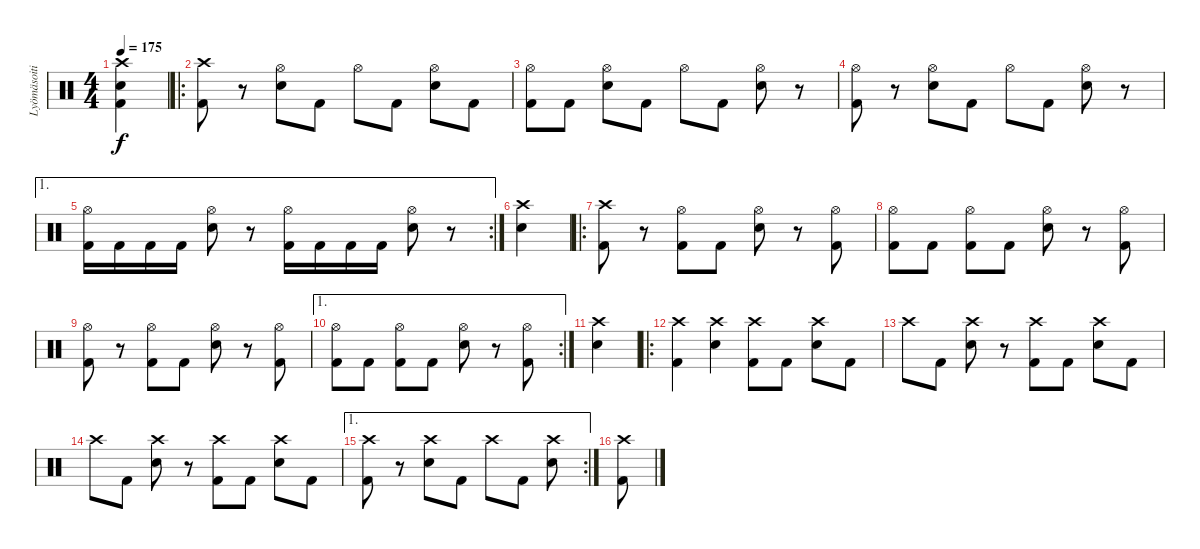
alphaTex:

\track ("Lyömäsoitin" "Lyömäsoiti") {instrument percussion}
\staff {score}
\articulation defaults
\ts (4 4)
\tempo 175
\clef neutral
\ks c
("Kick (hit) 2" "Electric Snare (hit)" "Crash high (hit)").4{dy f} |
\ro
("Kick (hit) 2" "Crash high (hit)").8 r.8 ("Electric Snare (hit)" "Hi-Hat (open)").8 "Kick (hit) 2".8 "Hi-Hat (open)".8 "Kick (hit) 2".8 ("Electric Snare (hit)" "Hi-Hat (open)").8 "Kick (hit) 2".8 |
("Kick (hit) 2" "Hi-Hat (open)").8 "Kick (hit) 2".8 ("Electric Snare (hit)" "Hi-Hat (open)").8 "Kick (hit) 2".8 "Hi-Hat (open)".8 "Kick (hit) 2".8 ("Electric Snare (hit)" "Hi-Hat (open)").8 r.8 |
("Kick (hit) 2" "Hi-Hat (open)").8 r.8 ("Electric Snare (hit)" "Hi-Hat (open)").8 "Kick (hit) 2".8 "Hi-Hat (open)".8 "Kick (hit) 2".8 ("Electric Snare (hit)" "Hi-Hat (open)").8 r.8 |
\ae 1
\rc 2
("Kick (hit) 2" "Hi-Hat (open)").16 "Kick (hit) 2".16 "Kick (hit) 2".16 "Kick (hit) 2".16 ("Electric Snare (hit)" "Hi-Hat (open)").8 r.8 ("Kick (hit) 2" "Hi-Hat (open)").16 "Kick (hit) 2".16 "Kick (hit) 2".16 "Kick (hit) 2".16 ("Electric Snare (hit)" "Hi-Hat (open)").8 r.8 |
("Electric Snare (hit)" "Crash high (hit)").4 |
\ro
("Kick (hit) 2" "Crash high (hit)").8 r.8 ("Kick (hit) 2" "Hi-Hat (open)").8 "Kick (hit) 2".8 ("Electric Snare (hit)" "Hi-Hat (open)").8 r.8 ("Kick (hit) 2" "Hi-Hat (open)").8 |
("Kick (hit) 2" "Hi-Hat (open)").8 "Kick (hit) 2".8 ("Kick (hit) 2" "Hi-Hat (open)").8 "Kick (hit) 2".8 ("Electric Snare (hit)" "Hi-Hat (open)").8 r.8 ("Kick (hit) 2" "Hi-Hat (open)").8 |
("Kick (hit) 2" "Hi-Hat (open)").8 r.8 ("Kick (hit) 2" "Hi-Hat (open)").8 "Kick (hit) 2".8 ("Electric Snare (hit)" "Hi-Hat (open)").8 r.8 ("Kick (hit) 2" "Hi-Hat (open)").8 |
\ae 1
\rc 2
("Kick (hit) 2" "Hi-Hat (open)").8 "Kick (hit) 2".8 ("Kick (hit) 2" "Hi-Hat (open)").8 "Kick (hit) 2".8 ("Electric Snare (hit)" "Hi-Hat (open)").8 r.8 ("Kick (hit) 2" "Hi-Hat (open)").8 |
("Electric Snare (hit)" "Crash high (hit)").4 |
\ro
("Kick (hit) 2" "Crash high (hit)").4 ("Electric Snare (hit)" "Crash high (hit)").4 ("Kick (hit) 2" "Crash high (hit)").8 "Kick (hit) 2".8 ("Electric Snare (hit)" "Crash high (hit)").8 "Kick (hit) 2".8 |
"Crash high (hit)".8 "Kick (hit) 2".8 ("Electric Snare (hit)" "Crash high (hit)").8 r.8 ("Kick (hit) 2" "Crash high (hit)").8 "Kick (hit) 2".8 ("Electric Snare (hit)" "Crash high (hit)").8 "Kick (hit) 2".8 |
"Crash high (hit)".8 "Kick (hit) 2".8 ("Electric Snare (hit)" "Crash high (hit)").8 r.8 ("Kick (hit) 2" "Crash high (hit)").8 "Kick (hit) 2".8 ("Electric Snare (hit)" "Crash high (hit)").8 "Kick (hit) 2".8 |
\ae 1
\rc 2
("Kick (hit) 2" "Crash high (hit)").8 r.8 ("Electric Snare (hit)" "Crash high (hit)").8 "Kick (hit) 2".8 "Crash high (hit)".8 "Kick (hit) 2".8 ("Electric Snare (hit)" "Crash high (hit)").8 |
("Kick (hit) 2" "Crash high (hit)").8
